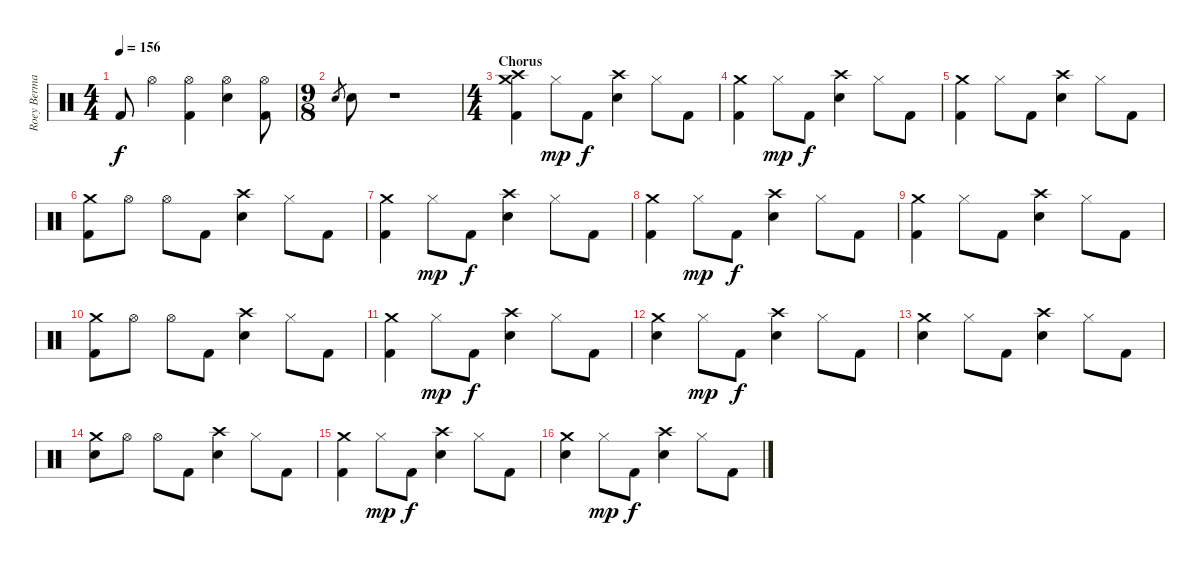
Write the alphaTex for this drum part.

\track ("Roey Berman" "Roey Berma") {instrument percussion}
\staff {score}
\articulation defaults
\ts (4 4)
\tempo 156
\clef neutral
\ks c "Kick (hit) 2".8{dy f} "Hi-Hat (open)".4
("Hi-Hat (open)" "Kick (hit) 2").4 ("Hi-Hat (open)" "Electric Snare (hit)").4 ("Hi-Hat (open)" "Kick (hit) 2").8 |
\ts (9 8)
"Electric Snare (hit)".8{gr} "Electric Snare (hit)".8 r.1 |
\ts (4 4)
\section ("" "Chorus")
("Crash high (hit)" "Crash medium (hit)" "Kick (hit) 2").4 "Hi-Hat (closed)".8{dy mp} "Kick (hit) 2".8{dy f} ("Crash high (hit)" "Electric Snare (hit)").4 "Hi-Hat (closed)".8 "Kick (hit) 2".8 |
("Crash medium (hit)" "Kick (hit) 2").4 "Hi-Hat (closed)".8{dy mp} "Kick (hit) 2".8{dy f} ("Crash high (hit)" "Electric Snare (hit)").4 "Hi-Hat (closed)".8 "Kick (hit) 2".8 |
("Crash medium (hit)" "Kick (hit) 2").4 "Hi-Hat (closed)".8 "Kick (hit) 2".8 ("Crash high (hit)" "Electric Snare (hit)").4 "Hi-Hat (closed)".8 "Kick (hit) 2".8 |
("Crash medium (hit)" "Kick (hit) 2").8 "Hi-Hat (open)".8 "Hi-Hat (open)".8 "Kick (hit) 2".8 ("Crash high (hit)" "Electric Snare (hit)").4 "Hi-Hat (closed)".8 "Kick (hit) 2".8 |
("Crash medium (hit)" "Kick (hit) 2").4 "Hi-Hat (closed)".8{dy mp} "Kick (hit) 2".8{dy f} ("Crash high (hit)" "Electric Snare (hit)").4 "Hi-Hat (closed)".8 "Kick (hit) 2".8 |
("Crash medium (hit)" "Kick (hit) 2").4 "Hi-Hat (closed)".8{dy mp} "Kick (hit) 2".8{dy f} ("Crash high (hit)" "Electric Snare (hit)").4 "Hi-Hat (closed)".8 "Kick (hit) 2".8 |
("Crash medium (hit)" "Kick (hit) 2").4 "Hi-Hat (closed)".8 "Kick (hit) 2".8 ("Crash high (hit)" "Electric Snare (hit)").4 "Hi-Hat (closed)".8 "Kick (hit) 2".8 |
("Crash medium (hit)" "Kick (hit) 2").8 "Hi-Hat (open)".8 "Hi-Hat (open)".8 "Kick (hit) 2".8 ("Crash high (hit)" "Electric Snare (hit)").4 "Hi-Hat (closed)".8 "Kick (hit) 2".8 |
("Crash medium (hit)" "Kick (hit) 2").4 "Hi-Hat (closed)".8{dy mp} "Kick (hit) 2".8{dy f} ("Crash high (hit)" "Electric Snare (hit)").4 "Hi-Hat (closed)".8 "Kick (hit) 2".8 |
("Crash medium (hit)" "Electric Snare (hit)").4 "Hi-Hat (closed)".8{dy mp} "Kick (hit) 2".8{dy f} ("Crash high (hit)" "Electric Snare (hit)").4 "Hi-Hat (closed)".8 "Kick (hit) 2".8 |
("Crash medium (hit)" "Electric Snare (hit)").4 "Hi-Hat (closed)".8 "Kick (hit) 2".8 ("Crash high (hit)" "Electric Snare (hit)").4 "Hi-Hat (closed)".8 "Kick (hit) 2".8 |
("Crash medium (hit)" "Electric Snare (hit)").8 "Hi-Hat (open)".8 "Hi-Hat (open)".8 "Kick (hit) 2".8 ("Crash high (hit)" "Electric Snare (hit)").4 "Hi-Hat (closed)".8 "Kick (hit) 2".8 |
("Crash medium (hit)" "Kick (hit) 2").4 "Hi-Hat (closed)".8{dy mp} "Kick (hit) 2".8{dy f} ("Crash high (hit)" "Electric Snare (hit)").4 "Hi-Hat (closed)".8 "Kick (hit) 2".8 |
("Crash medium (hit)" "Electric Snare (hit)").4 "Hi-Hat (closed)".8{dy mp} "Kick (hit) 2".8{dy f} ("Crash high (hit)" "Electric Snare (hit)").4 "Hi-Hat (closed)".8 "Kick (hit) 2".8
